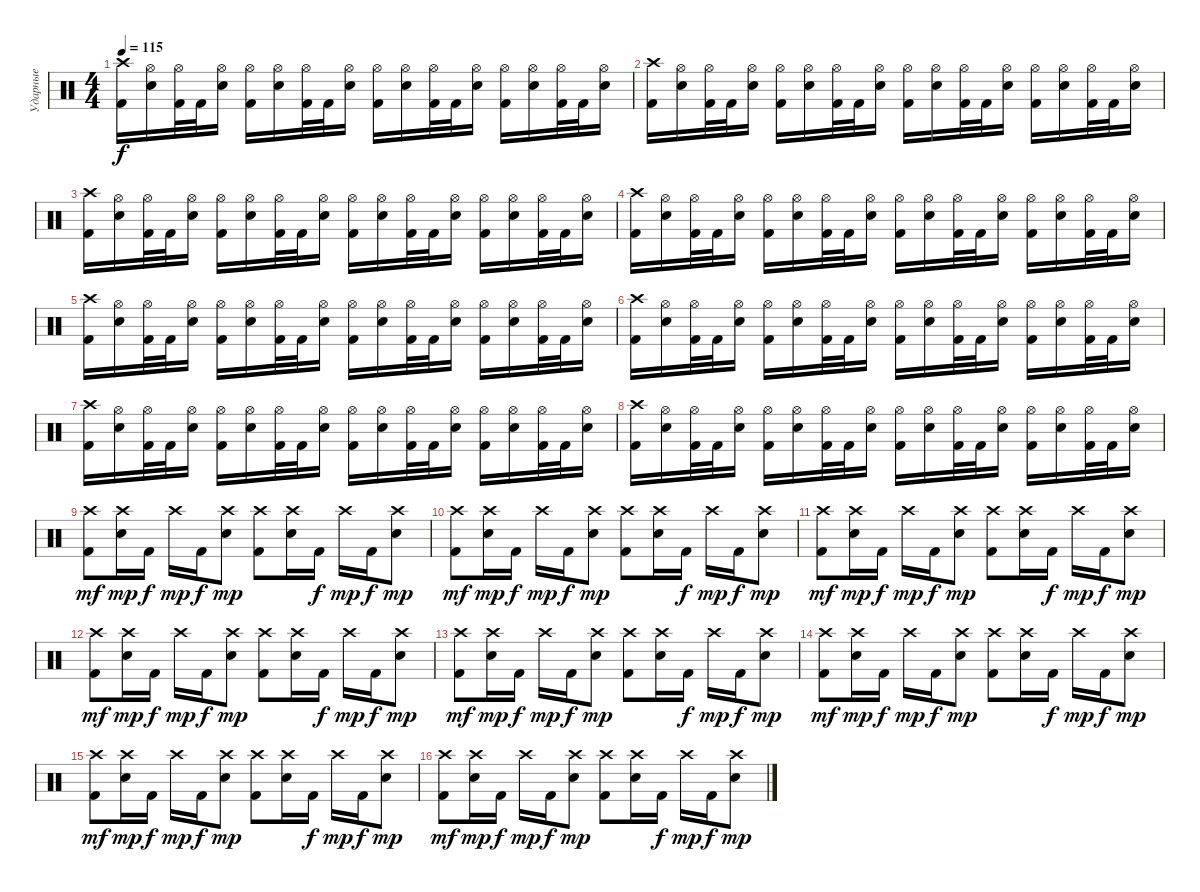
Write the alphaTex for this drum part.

\track ("Ударные" "Ударные") {instrument percussion}
\staff {score}
\articulation defaults
\ts (4 4)
\tempo 115
\clef neutral
\ks c
("Crash high (hit)" "Kick (hit) 2").16{dy f} ("Hi-Hat (open)" "Electric Snare (hit)").16 ("Hi-Hat (open)" "Kick (hit) 2").32 "Kick (hit) 2".32 ("Hi-Hat (open)" "Electric Snare (hit)").16 ("Hi-Hat (open)" "Kick (hit) 2").16 ("Hi-Hat (open)" "Electric Snare (hit)").16 ("Hi-Hat (open)" "Kick (hit) 2").32 "Kick (hit) 2".32 ("Hi-Hat (open)" "Electric Snare (hit)").16 ("Hi-Hat (open)" "Kick (hit) 2").16 ("Hi-Hat (open)" "Electric Snare (hit)").16 ("Hi-Hat (open)" "Kick (hit) 2").32 "Kick (hit) 2".32 ("Hi-Hat (open)" "Electric Snare (hit)").16 ("Hi-Hat (open)" "Kick (hit) 2").16 ("Hi-Hat (open)" "Electric Snare (hit)").16 ("Hi-Hat (open)" "Kick (hit) 2").32 "Kick (hit) 2".32 ("Hi-Hat (open)" "Electric Snare (hit)").16 |
("Crash high (hit)" "Kick (hit) 2").16 ("Hi-Hat (open)" "Electric Snare (hit)").16 ("Hi-Hat (open)" "Kick (hit) 2").32 "Kick (hit) 2".32 ("Hi-Hat (open)" "Electric Snare (hit)").16 ("Hi-Hat (open)" "Kick (hit) 2").16 ("Hi-Hat (open)" "Electric Snare (hit)").16 ("Hi-Hat (open)" "Kick (hit) 2").32 "Kick (hit) 2".32 ("Hi-Hat (open)" "Electric Snare (hit)").16 ("Hi-Hat (open)" "Kick (hit) 2").16 ("Hi-Hat (open)" "Electric Snare (hit)").16 ("Hi-Hat (open)" "Kick (hit) 2").32 "Kick (hit) 2".32 ("Hi-Hat (open)" "Electric Snare (hit)").16 ("Hi-Hat (open)" "Kick (hit) 2").16 ("Hi-Hat (open)" "Electric Snare (hit)").16 ("Hi-Hat (open)" "Kick (hit) 2").32 "Kick (hit) 2".32 ("Hi-Hat (open)" "Electric Snare (hit)").16 |
("Crash high (hit)" "Kick (hit) 2").16 ("Hi-Hat (open)" "Electric Snare (hit)").16 ("Hi-Hat (open)" "Kick (hit) 2").32 "Kick (hit) 2".32 ("Hi-Hat (open)" "Electric Snare (hit)").16 ("Hi-Hat (open)" "Kick (hit) 2").16 ("Hi-Hat (open)" "Electric Snare (hit)").16 ("Hi-Hat (open)" "Kick (hit) 2").32 "Kick (hit) 2".32 ("Hi-Hat (open)" "Electric Snare (hit)").16 ("Hi-Hat (open)" "Kick (hit) 2").16 ("Hi-Hat (open)" "Electric Snare (hit)").16 ("Hi-Hat (open)" "Kick (hit) 2").32 "Kick (hit) 2".32 ("Hi-Hat (open)" "Electric Snare (hit)").16 ("Hi-Hat (open)" "Kick (hit) 2").16 ("Hi-Hat (open)" "Electric Snare (hit)").16 ("Hi-Hat (open)" "Kick (hit) 2").32 "Kick (hit) 2".32 ("Hi-Hat (open)" "Electric Snare (hit)").16 |
("Crash high (hit)" "Kick (hit) 2").16 ("Hi-Hat (open)" "Electric Snare (hit)").16 ("Hi-Hat (open)" "Kick (hit) 2").32 "Kick (hit) 2".32 ("Hi-Hat (open)" "Electric Snare (hit)").16 ("Hi-Hat (open)" "Kick (hit) 2").16 ("Hi-Hat (open)" "Electric Snare (hit)").16 ("Hi-Hat (open)" "Kick (hit) 2").32 "Kick (hit) 2".32 ("Hi-Hat (open)" "Electric Snare (hit)").16 ("Hi-Hat (open)" "Kick (hit) 2").16 ("Hi-Hat (open)" "Electric Snare (hit)").16 ("Hi-Hat (open)" "Kick (hit) 2").32 "Kick (hit) 2".32 ("Hi-Hat (open)" "Electric Snare (hit)").16 ("Hi-Hat (open)" "Kick (hit) 2").16 ("Hi-Hat (open)" "Electric Snare (hit)").16 ("Hi-Hat (open)" "Kick (hit) 2").32 "Kick (hit) 2".32 ("Hi-Hat (open)" "Electric Snare (hit)").16 |
("Crash high (hit)" "Kick (hit) 2").16 ("Hi-Hat (open)" "Electric Snare (hit)").16 ("Hi-Hat (open)" "Kick (hit) 2").32 "Kick (hit) 2".32 ("Hi-Hat (open)" "Electric Snare (hit)").16 ("Hi-Hat (open)" "Kick (hit) 2").16 ("Hi-Hat (open)" "Electric Snare (hit)").16 ("Hi-Hat (open)" "Kick (hit) 2").32 "Kick (hit) 2".32 ("Hi-Hat (open)" "Electric Snare (hit)").16 ("Hi-Hat (open)" "Kick (hit) 2").16 ("Hi-Hat (open)" "Electric Snare (hit)").16 ("Hi-Hat (open)" "Kick (hit) 2").32 "Kick (hit) 2".32 ("Hi-Hat (open)" "Electric Snare (hit)").16 ("Hi-Hat (open)" "Kick (hit) 2").16 ("Hi-Hat (open)" "Electric Snare (hit)").16 ("Hi-Hat (open)" "Kick (hit) 2").32 "Kick (hit) 2".32 ("Hi-Hat (open)" "Electric Snare (hit)").16 |
("Crash high (hit)" "Kick (hit) 2").16 ("Hi-Hat (open)" "Electric Snare (hit)").16 ("Hi-Hat (open)" "Kick (hit) 2").32 "Kick (hit) 2".32 ("Hi-Hat (open)" "Electric Snare (hit)").16 ("Hi-Hat (open)" "Kick (hit) 2").16 ("Hi-Hat (open)" "Electric Snare (hit)").16 ("Hi-Hat (open)" "Kick (hit) 2").32 "Kick (hit) 2".32 ("Hi-Hat (open)" "Electric Snare (hit)").16 ("Hi-Hat (open)" "Kick (hit) 2").16 ("Hi-Hat (open)" "Electric Snare (hit)").16 ("Hi-Hat (open)" "Kick (hit) 2").32 "Kick (hit) 2".32 ("Hi-Hat (open)" "Electric Snare (hit)").16 ("Hi-Hat (open)" "Kick (hit) 2").16 ("Hi-Hat (open)" "Electric Snare (hit)").16 ("Hi-Hat (open)" "Kick (hit) 2").32 "Kick (hit) 2".32 ("Hi-Hat (open)" "Electric Snare (hit)").16 |
("Crash high (hit)" "Kick (hit) 2").16 ("Hi-Hat (open)" "Electric Snare (hit)").16 ("Hi-Hat (open)" "Kick (hit) 2").32 "Kick (hit) 2".32 ("Hi-Hat (open)" "Electric Snare (hit)").16 ("Hi-Hat (open)" "Kick (hit) 2").16 ("Hi-Hat (open)" "Electric Snare (hit)").16 ("Hi-Hat (open)" "Kick (hit) 2").32 "Kick (hit) 2".32 ("Hi-Hat (open)" "Electric Snare (hit)").16 ("Hi-Hat (open)" "Kick (hit) 2").16 ("Hi-Hat (open)" "Electric Snare (hit)").16 ("Hi-Hat (open)" "Kick (hit) 2").32 "Kick (hit) 2".32 ("Hi-Hat (open)" "Electric Snare (hit)").16 ("Hi-Hat (open)" "Kick (hit) 2").16 ("Hi-Hat (open)" "Electric Snare (hit)").16 ("Hi-Hat (open)" "Kick (hit) 2").32 "Kick (hit) 2".32 ("Hi-Hat (open)" "Electric Snare (hit)").16 |
("Crash high (hit)" "Kick (hit) 2").16 ("Hi-Hat (open)" "Electric Snare (hit)").16 ("Hi-Hat (open)" "Kick (hit) 2").32 "Kick (hit) 2".32 ("Hi-Hat (open)" "Electric Snare (hit)").16 ("Hi-Hat (open)" "Kick (hit) 2").16 ("Hi-Hat (open)" "Electric Snare (hit)").16 ("Hi-Hat (open)" "Kick (hit) 2").32 "Kick (hit) 2".32 ("Hi-Hat (open)" "Electric Snare (hit)").16 ("Hi-Hat (open)" "Kick (hit) 2").16 ("Hi-Hat (open)" "Electric Snare (hit)").16 ("Hi-Hat (open)" "Kick (hit) 2").32 "Kick (hit) 2".32 ("Hi-Hat (open)" "Electric Snare (hit)").16 ("Hi-Hat (open)" "Kick (hit) 2").16 ("Hi-Hat (open)" "Electric Snare (hit)").16 ("Hi-Hat (open)" "Kick (hit) 2").32 "Kick (hit) 2".32 ("Hi-Hat (open)" "Electric Snare (hit)").16 |
("Crash high (hit)" "Kick (hit) 2").8{dy mf} ("Crash high (hit)" "Electric Snare (hit)").16{dy mp} "Kick (hit) 2".16{dy f} "Crash high (hit)".16{dy mp} "Kick (hit) 2".16{dy f} ("Crash high (hit)" "Electric Snare (hit)").8{dy mp} ("Crash high (hit)" "Kick (hit) 2").8 ("Crash high (hit)" "Electric Snare (hit)").16 "Kick (hit) 2".16{dy f} "Crash high (hit)".16{dy mp} "Kick (hit) 2".16{dy f} ("Crash high (hit)" "Electric Snare (hit)").8{dy mp} |
("Crash high (hit)" "Kick (hit) 2").8{dy mf} ("Crash high (hit)" "Electric Snare (hit)").16{dy mp} "Kick (hit) 2".16{dy f} "Crash high (hit)".16{dy mp} "Kick (hit) 2".16{dy f} ("Crash high (hit)" "Electric Snare (hit)").8{dy mp} ("Crash high (hit)" "Kick (hit) 2").8 ("Crash high (hit)" "Electric Snare (hit)").16 "Kick (hit) 2".16{dy f} "Crash high (hit)".16{dy mp} "Kick (hit) 2".16{dy f} ("Crash high (hit)" "Electric Snare (hit)").8{dy mp} |
("Crash high (hit)" "Kick (hit) 2").8{dy mf} ("Crash high (hit)" "Electric Snare (hit)").16{dy mp} "Kick (hit) 2".16{dy f} "Crash high (hit)".16{dy mp} "Kick (hit) 2".16{dy f} ("Crash high (hit)" "Electric Snare (hit)").8{dy mp} ("Crash high (hit)" "Kick (hit) 2").8 ("Crash high (hit)" "Electric Snare (hit)").16 "Kick (hit) 2".16{dy f} "Crash high (hit)".16{dy mp} "Kick (hit) 2".16{dy f} ("Crash high (hit)" "Electric Snare (hit)").8{dy mp} |
("Crash high (hit)" "Kick (hit) 2").8{dy mf} ("Crash high (hit)" "Electric Snare (hit)").16{dy mp} "Kick (hit) 2".16{dy f} "Crash high (hit)".16{dy mp} "Kick (hit) 2".16{dy f} ("Crash high (hit)" "Electric Snare (hit)").8{dy mp} ("Crash high (hit)" "Kick (hit) 2").8 ("Crash high (hit)" "Electric Snare (hit)").16 "Kick (hit) 2".16{dy f} "Crash high (hit)".16{dy mp} "Kick (hit) 2".16{dy f} ("Crash high (hit)" "Electric Snare (hit)").8{dy mp} |
("Crash high (hit)" "Kick (hit) 2").8{dy mf} ("Crash high (hit)" "Electric Snare (hit)").16{dy mp} "Kick (hit) 2".16{dy f} "Crash high (hit)".16{dy mp} "Kick (hit) 2".16{dy f} ("Crash high (hit)" "Electric Snare (hit)").8{dy mp} ("Crash high (hit)" "Kick (hit) 2").8 ("Crash high (hit)" "Electric Snare (hit)").16 "Kick (hit) 2".16{dy f} "Crash high (hit)".16{dy mp} "Kick (hit) 2".16{dy f} ("Crash high (hit)" "Electric Snare (hit)").8{dy mp} |
("Crash high (hit)" "Kick (hit) 2").8{dy mf} ("Crash high (hit)" "Electric Snare (hit)").16{dy mp} "Kick (hit) 2".16{dy f} "Crash high (hit)".16{dy mp} "Kick (hit) 2".16{dy f} ("Crash high (hit)" "Electric Snare (hit)").8{dy mp} ("Crash high (hit)" "Kick (hit) 2").8 ("Crash high (hit)" "Electric Snare (hit)").16 "Kick (hit) 2".16{dy f} "Crash high (hit)".16{dy mp} "Kick (hit) 2".16{dy f} ("Crash high (hit)" "Electric Snare (hit)").8{dy mp} |
("Crash high (hit)" "Kick (hit) 2").8{dy mf} ("Crash high (hit)" "Electric Snare (hit)").16{dy mp} "Kick (hit) 2".16{dy f} "Crash high (hit)".16{dy mp} "Kick (hit) 2".16{dy f} ("Crash high (hit)" "Electric Snare (hit)").8{dy mp} ("Crash high (hit)" "Kick (hit) 2").8 ("Crash high (hit)" "Electric Snare (hit)").16 "Kick (hit) 2".16{dy f} "Crash high (hit)".16{dy mp} "Kick (hit) 2".16{dy f} ("Crash high (hit)" "Electric Snare (hit)").8{dy mp} |
("Crash high (hit)" "Kick (hit) 2").8{dy mf} ("Crash high (hit)" "Electric Snare (hit)").16{dy mp} "Kick (hit) 2".16{dy f} "Crash high (hit)".16{dy mp} "Kick (hit) 2".16{dy f} ("Crash high (hit)" "Electric Snare (hit)").8{dy mp} ("Crash high (hit)" "Kick (hit) 2").8 ("Crash high (hit)" "Electric Snare (hit)").16 "Kick (hit) 2".16{dy f} "Crash high (hit)".16{dy mp} "Kick (hit) 2".16{dy f} ("Crash high (hit)" "Electric Snare (hit)").8{dy mp}
